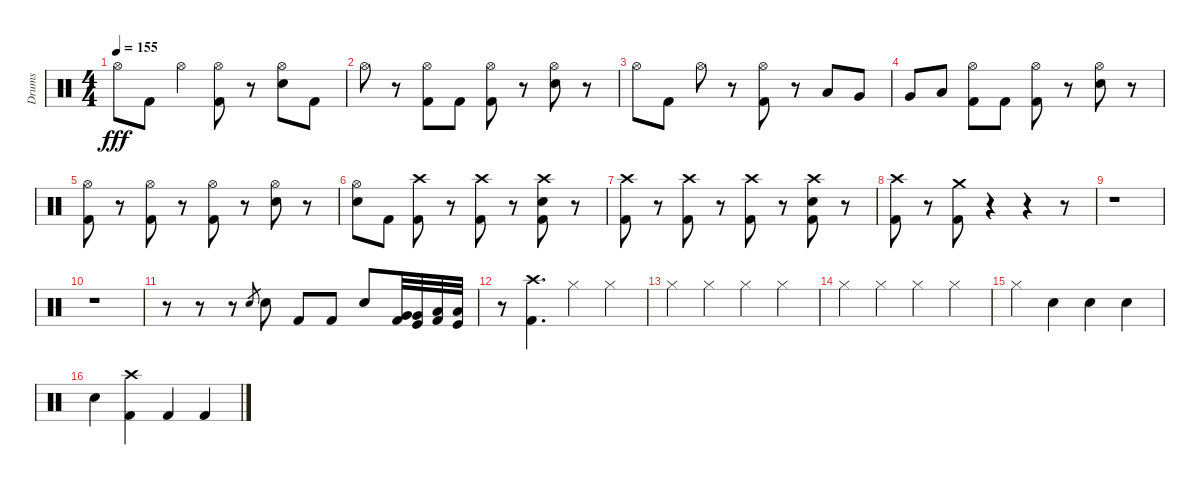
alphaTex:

\track ("Drums" "Drums") {instrument percussion}
\staff {score}
\articulation defaults
\ts (4 4)
\tempo 155
\clef neutral
\ks c "Hi-Hat (open)".8{dy fff} "Kick (hit) 2".8 "Hi-Hat (open)".4
("Hi-Hat (open)" "Kick (hit) 2").8 r.8 ("Hi-Hat (open)" "Snare (hit) 2").8 "Kick (hit) 2".8 |
"Hi-Hat (open)".8 r.8 ("Hi-Hat (open)" "Kick (hit) 2").8 "Kick (hit) 2".8 ("Hi-Hat (open)" "Kick (hit) 2").8 r.8 ("Hi-Hat (open)" "Snare (hit) 2").8 r.8 |
"Hi-Hat (open)".8 "Kick (hit) 2".8 "Hi-Hat (open)".8 r.8 ("Hi-Hat (open)" "Kick (hit) 2").8 r.8 "Low Tom (hit)".8 "Very Low Tom (hit)".8 |
"Very Low Tom (hit)".8 "Low Floor Tom (hit)".8 ("Hi-Hat (open)" "Kick (hit) 2").8 "Kick (hit) 2".8 ("Hi-Hat (open)" "Kick (hit) 2").8 r.8 ("Hi-Hat (open)" "Snare (hit) 2").8 r.8 |
("Hi-Hat (open)" "Kick (hit) 2").8 r.8 ("Hi-Hat (open)" "Kick (hit) 2").8 r.8 ("Hi-Hat (open)" "Kick (hit) 2").8 r.8 ("Hi-Hat (open)" "Snare (hit) 2").8 r.8 |
("Hi-Hat (open)" "Snare (hit) 2").8 "Kick (hit) 2".8 ("Crash high (hit)" "Kick (hit) 2").8 r.8 ("Crash high (hit)" "Kick (hit) 2").8 r.8 ("Crash high (hit)" "Snare (hit) 2" "Kick (hit) 2").8 r.8 |
("Crash high (hit)" "Kick (hit) 2").8 r.8 ("Crash high (hit)" "Kick (hit) 2").8 r.8 ("Crash high (hit)" "Kick (hit) 2").8 r.8 ("Crash high (hit)" "Snare (hit) 2" "Kick (hit) 2").8 r.8 |
("Crash high (hit)" "Kick (hit) 2").8 r.8 ("Crash medium (hit)" "Kick (hit) 2").8 r.4 r.4 r.8 |
r.1 |
r.1 |
r.8 r.8 r.8 "Snare (hit) 2".8{gr} "Snare (hit) 2".8 "Kick (hit) 2".8 "Kick (hit) 2".8 "Snare (hit) 2".8 ("Very Low Tom (hit)" "Kick (hit) 2").32 ("Very Low Tom (hit)" "Kick (hit)").32 ("Low Floor Tom (hit)" "Kick (hit) 2").32 ("Low Floor Tom (hit)" "Kick (hit)").32 |
r.8 ("Crash high (hit)" "Kick (hit) 2").4{d} "Hi-Hat (closed)".4 "Hi-Hat (closed)".4 |
"Hi-Hat (closed)".4 "Hi-Hat (closed)".4 "Hi-Hat (closed)".4 "Hi-Hat (closed)".4 |
"Hi-Hat (closed)".4 "Hi-Hat (closed)".4 "Hi-Hat (closed)".4 "Hi-Hat (closed)".4 |
"Hi-Hat (closed)".4 "Snare (hit) 2".4 "Snare (hit) 2".4 "Snare (hit) 2".4 |
"Snare (hit) 2".4 ("Crash high (hit)" "Kick (hit) 2").4 "Kick (hit) 2".4 "Kick (hit) 2".4
